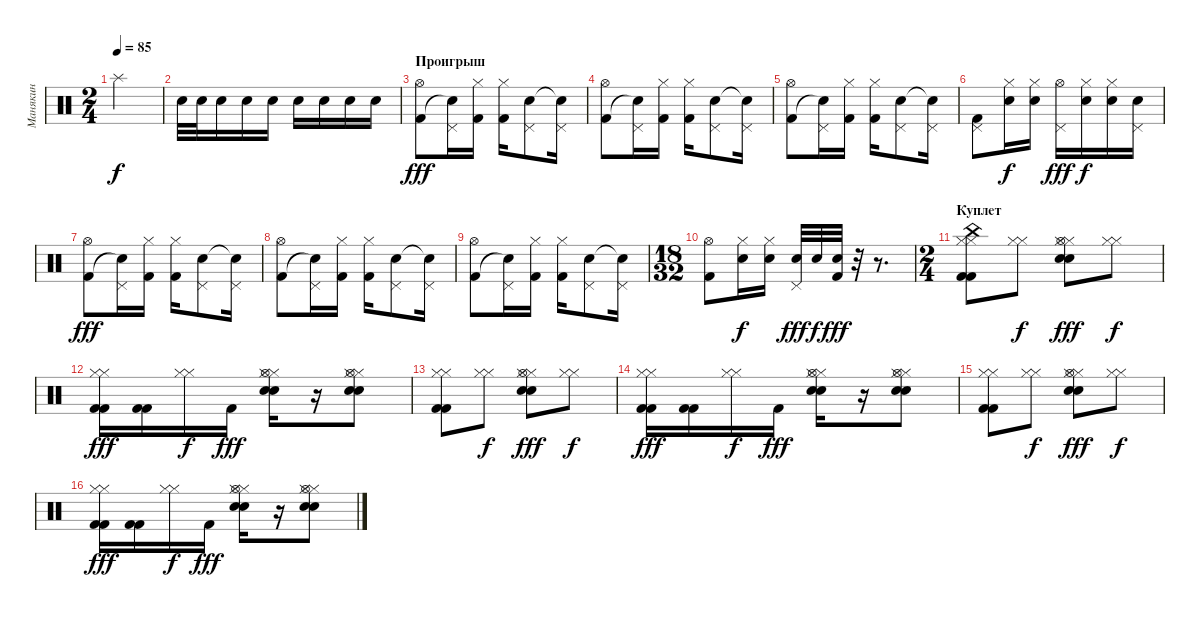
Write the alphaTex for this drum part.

\track ("Манякин" "Манякин") {instrument percussion}
\staff {score}
\articulation defaults
\ts (2 4)
\tempo 85
\clef neutral
\ks c "Splash (hit)".2{dy f}
|
"Snare (hit) 2".32 "Snare (hit) 2".32 "Snare (hit) 2".16 "Snare (hit) 2".16 "Snare (hit) 2".16 "Snare (hit) 2".16 "Snare (hit) 2".16 "Snare (hit) 2".16 "Snare (hit) 2".16 |
\section ("" "Проигрыш")
("Kick (hit) 2" "Hi-Hat (open)").8{dy fff} ("Snare (hit)"{t} "Pedal Hi-Hat (hit)").16 ("Kick (hit) 2" "Hi-Hat (closed)").16 ("Kick (hit) 2" "Hi-Hat (closed)").16 ("Snare (hit) 2" "Pedal Hi-Hat (hit)").8 ("Snare (hit)"{t} "Pedal Hi-Hat (hit)").16 |
("Kick (hit) 2" "Hi-Hat (open)").8 ("Snare (hit)"{t} "Pedal Hi-Hat (hit)").16 ("Kick (hit) 2" "Hi-Hat (closed)").16 ("Kick (hit) 2" "Hi-Hat (closed)").16 ("Snare (hit) 2" "Pedal Hi-Hat (hit)").8 ("Snare (hit)"{t} "Pedal Hi-Hat (hit)").16 |
("Kick (hit) 2" "Hi-Hat (open)").8 ("Snare (hit)"{t} "Pedal Hi-Hat (hit)").16 ("Kick (hit) 2" "Hi-Hat (closed)").16 ("Kick (hit) 2" "Hi-Hat (closed)").16 ("Snare (hit) 2" "Pedal Hi-Hat (hit)").8 ("Snare (hit)"{t} "Pedal Hi-Hat (hit)").16 |
("Kick (hit) 2" "Pedal Hi-Hat (hit)").8 ("Snare (hit) 2" "Hi-Hat (closed)").16{dy f} ("Snare (hit) 2" "Hi-Hat (closed)").16 ("Hi-Hat (open)" "Pedal Hi-Hat (hit)").16{dy fff} ("Snare (hit) 2" "Hi-Hat (closed)").16{dy f} ("Snare (hit) 2" "Hi-Hat (closed)").16 ("Snare (hit) 2" "Pedal Hi-Hat (hit)").16 |
("Kick (hit) 2" "Hi-Hat (open)").8{dy fff} ("Snare (hit)"{t} "Pedal Hi-Hat (hit)").16 ("Kick (hit) 2" "Hi-Hat (closed)").16 ("Kick (hit) 2" "Hi-Hat (closed)").16 ("Snare (hit) 2" "Pedal Hi-Hat (hit)").8 ("Snare (hit)"{t} "Pedal Hi-Hat (hit)").16 |
("Kick (hit) 2" "Hi-Hat (open)").8 ("Snare (hit)"{t} "Pedal Hi-Hat (hit)").16 ("Kick (hit) 2" "Hi-Hat (closed)").16 ("Kick (hit) 2" "Hi-Hat (closed)").16 ("Snare (hit) 2" "Pedal Hi-Hat (hit)").8 ("Snare (hit)"{t} "Pedal Hi-Hat (hit)").16 |
("Kick (hit) 2" "Hi-Hat (open)").8 ("Snare (hit)"{t} "Pedal Hi-Hat (hit)").16 ("Kick (hit) 2" "Hi-Hat (closed)").16 ("Kick (hit) 2" "Hi-Hat (closed)").16 ("Snare (hit) 2" "Pedal Hi-Hat (hit)").8 ("Snare (hit)"{t} "Pedal Hi-Hat (hit)").16 |
\ts (18 32)
("Kick (hit) 2" "Hi-Hat (open)").8 ("Snare (hit) 2" "Hi-Hat (closed)").16{dy f} ("Snare (hit) 2" "Hi-Hat (closed)").16 ("Snare (hit) 2" "Pedal Hi-Hat (hit)").32{dy fff} "Snare (hit) 2".32{dy f} ("Snare (hit) 2" "Kick (hit) 2").32{dy fff} r.32 r.8{d} |
\ts (2 4)
\section ("" "Куплет")
("Kick (hit) 2" "Kick (hit) 2" "Hi-Hat (closed)" "Hi-Hat (closed)" "China (hit)").8 ("Hi-Hat (closed)" "Hi-Hat (closed)").8{dy f} ("Snare (hit) 2" "Snare (hit) 2" "Hi-Hat (closed)" "Hi-Hat (closed)" "Hi-Hat (open)").8{dy fff} ("Hi-Hat (closed)" "Hi-Hat (closed)").8{dy f} |
("Kick (hit) 2" "Kick (hit) 2" "Hi-Hat (closed)" "Hi-Hat (closed)").16{dy fff} ("Kick (hit) 2" "Kick (hit) 2").16 ("Hi-Hat (closed)" "Hi-Hat (closed)").16{dy f} "Kick (hit) 2".16{dy fff} ("Snare (hit) 2" "Snare (hit) 2" "Hi-Hat (closed)" "Hi-Hat (closed)" "Hi-Hat (open)").16 r.16 ("Snare (hit) 2" "Snare (hit) 2" "Hi-Hat (closed)" "Hi-Hat (closed)" "Hi-Hat (open)").8 |
("Kick (hit) 2" "Kick (hit) 2" "Hi-Hat (closed)" "Hi-Hat (closed)").8 ("Hi-Hat (closed)" "Hi-Hat (closed)").8{dy f} ("Snare (hit) 2" "Snare (hit) 2" "Hi-Hat (closed)" "Hi-Hat (closed)" "Hi-Hat (open)").8{dy fff} ("Hi-Hat (closed)" "Hi-Hat (closed)").8{dy f} |
("Kick (hit) 2" "Kick (hit) 2" "Hi-Hat (closed)" "Hi-Hat (closed)").16{dy fff} ("Kick (hit) 2" "Kick (hit) 2").16 ("Hi-Hat (closed)" "Hi-Hat (closed)").16{dy f} "Kick (hit) 2".16{dy fff} ("Snare (hit) 2" "Snare (hit) 2" "Hi-Hat (closed)" "Hi-Hat (closed)" "Hi-Hat (open)").16 r.16 ("Snare (hit) 2" "Snare (hit) 2" "Hi-Hat (closed)" "Hi-Hat (closed)" "Hi-Hat (open)").8 |
("Kick (hit) 2" "Kick (hit) 2" "Hi-Hat (closed)" "Hi-Hat (closed)").8 ("Hi-Hat (closed)" "Hi-Hat (closed)").8{dy f} ("Snare (hit) 2" "Snare (hit) 2" "Hi-Hat (closed)" "Hi-Hat (closed)" "Hi-Hat (open)").8{dy fff} ("Hi-Hat (closed)" "Hi-Hat (closed)").8{dy f} |
("Kick (hit) 2" "Kick (hit) 2" "Hi-Hat (closed)" "Hi-Hat (closed)").16{dy fff} ("Kick (hit) 2" "Kick (hit) 2").16 ("Hi-Hat (closed)" "Hi-Hat (closed)").16{dy f} "Kick (hit) 2".16{dy fff} ("Snare (hit) 2" "Snare (hit) 2" "Hi-Hat (closed)" "Hi-Hat (closed)" "Hi-Hat (open)").16 r.16 ("Snare (hit) 2" "Snare (hit) 2" "Hi-Hat (closed)" "Hi-Hat (closed)" "Hi-Hat (open)").8
